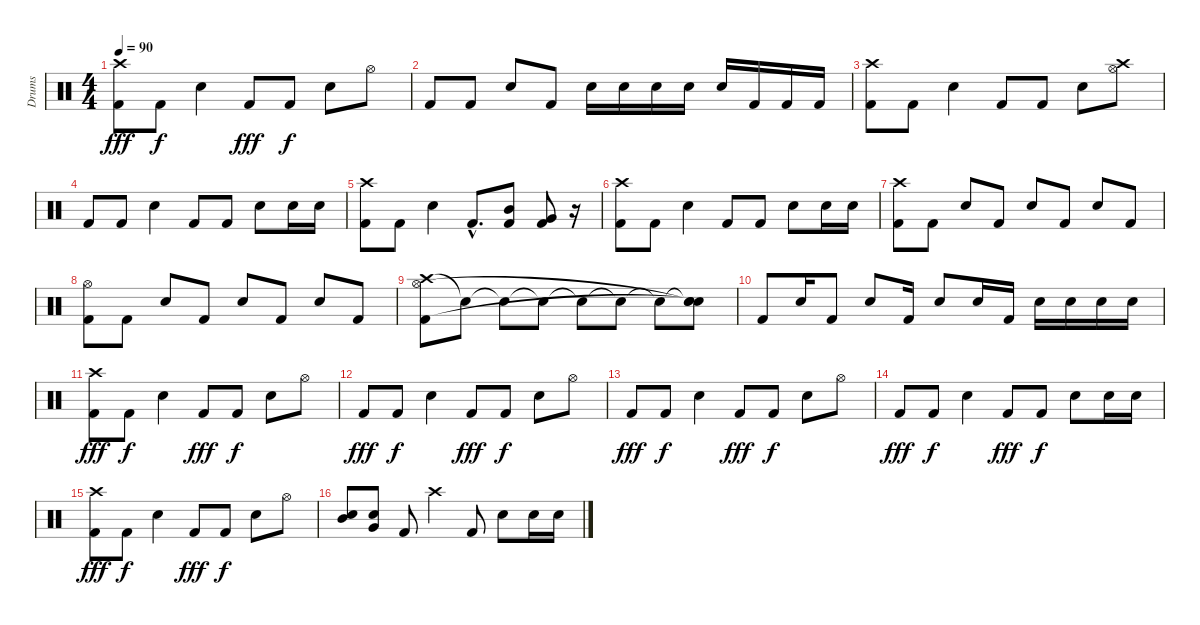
\track ("Drums" "Drums") {instrument percussion}
\staff {score}
\articulation defaults
\ts (4 4)
\tempo 90
\clef neutral
\ks c
("Crash high (hit)" "Kick (hit) 2").8{dy fff} "Kick (hit) 2".8{dy f} "Snare (hit) 2".4 "Kick (hit) 2".8{dy fff} "Kick (hit) 2".8{dy f} "Snare (hit) 2".8 "Hi-Hat (open)".8 |
"Kick (hit) 2".8 "Kick (hit) 2".8 "Snare (hit) 2".8 "Kick (hit) 2".8 "Snare (hit) 2".16 "Snare (hit) 2".16 "Snare (hit) 2".16 "Snare (hit) 2".16 "Snare (hit) 2".16 "Kick (hit) 2".16 "Kick (hit) 2".16 "Kick (hit) 2".16 |
("Crash high (hit)" "Kick (hit) 2").8 "Kick (hit) 2".8 "Snare (hit) 2".4 "Kick (hit) 2".8 "Kick (hit) 2".8 "Snare (hit) 2".8 ("Crash high (hit)" "Hi-Hat (open)").8 |
"Kick (hit) 2".8 "Kick (hit) 2".8 "Snare (hit) 2".4 "Kick (hit) 2".8 "Kick (hit) 2".8 "Snare (hit) 2".8 "Snare (hit) 2".16 "Snare (hit) 2".16 |
("Crash high (hit)" "Kick (hit) 2").8 "Kick (hit) 2".8 "Snare (hit) 2".4 "Kick (hit) 2"{hac}.8{d} ("Kick (hit) 2" "Mid Tom (hit)").8 ("Kick (hit) 2" "Very Low Tom (hit)").8 r.16 |
("Crash high (hit)" "Kick (hit) 2").8 "Kick (hit) 2".8 "Snare (hit) 2".4 "Kick (hit) 2".8 "Kick (hit) 2".8 "Snare (hit) 2".8 "Snare (hit) 2".16 "Snare (hit) 2".16 |
("Crash high (hit)" "Kick (hit) 2").8 "Kick (hit) 2".8 "Snare (hit) 2".8 "Kick (hit) 2".8 "Snare (hit) 2".8 "Kick (hit) 2".8 "Snare (hit) 2".8 "Kick (hit) 2".8 |
("Hi-Hat (open)" "Kick (hit) 2").8 "Kick (hit) 2".8 "Snare (hit) 2".8 "Kick (hit) 2".8 "Snare (hit) 2".8 "Kick (hit) 2".8 "Snare (hit) 2".8 "Kick (hit) 2".8 |
("Crash high (hit)" "Hi-Hat (open)" "Kick (hit) 2").8 "Snare (hit)"{t}.8 "Snare (hit)"{t}.8 "Snare (hit)"{t}.8 "Snare (hit)"{t}.8 "Snare (hit)"{t}.8 "Snare (hit)"{t}.8 ("Snare (hit)"{t} "Snare (hit)"{t} "Snare (hit)"{t}).8 |
"Kick (hit) 2".8 "Snare (hit) 2".16 "Kick (hit) 2".8 "Snare (hit) 2".8 "Kick (hit) 2".16 "Snare (hit) 2".8 "Snare (hit) 2".16 "Kick (hit) 2".16 "Snare (hit) 2".16 "Snare (hit) 2".16 "Snare (hit) 2".16 "Snare (hit) 2".16 |
("Crash high (hit)" "Kick (hit) 2").8{dy fff} "Kick (hit) 2".8{dy f} "Snare (hit) 2".4 "Kick (hit) 2".8{dy fff} "Kick (hit) 2".8{dy f} "Snare (hit) 2".8 "Hi-Hat (open)".8 |
"Kick (hit) 2".8{dy fff} "Kick (hit) 2".8{dy f} "Snare (hit) 2".4 "Kick (hit) 2".8{dy fff} "Kick (hit) 2".8{dy f} "Snare (hit) 2".8 "Hi-Hat (open)".8 |
"Kick (hit) 2".8{dy fff} "Kick (hit) 2".8{dy f} "Snare (hit) 2".4 "Kick (hit) 2".8{dy fff} "Kick (hit) 2".8{dy f} "Snare (hit) 2".8 "Hi-Hat (open)".8 |
"Kick (hit) 2".8{dy fff} "Kick (hit) 2".8{dy f} "Snare (hit) 2".4 "Kick (hit) 2".8{dy fff} "Kick (hit) 2".8{dy f} "Snare (hit) 2".8 "Snare (hit) 2".16 "Snare (hit) 2".16 |
("Crash high (hit)" "Kick (hit) 2").8{dy fff} "Kick (hit) 2".8{dy f} "Snare (hit) 2".4 "Kick (hit) 2".8{dy fff} "Kick (hit) 2".8{dy f} "Snare (hit) 2".8 "Hi-Hat (open)".8 |
("Snare (hit) 2" "Mid Tom (hit)").8 ("Snare (hit) 2" "Very Low Tom (hit)").8 "Kick (hit) 2".8 "Crash high (hit)".4 "Kick (hit) 2".8 "Snare (hit) 2".8 "Snare (hit) 2".16 "Snare (hit) 2".16
